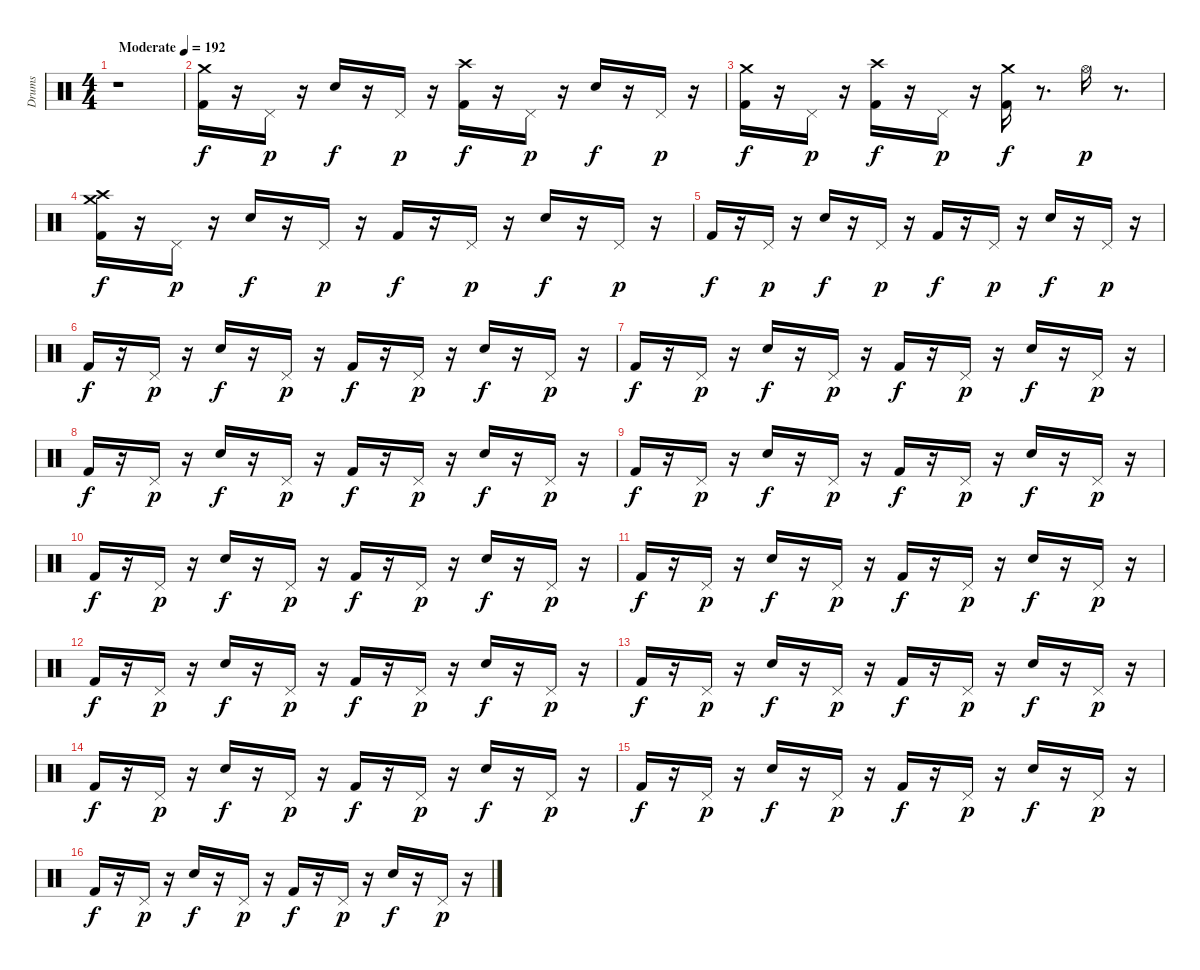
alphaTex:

\track ("Drums" "Drums") {instrument percussion}
\staff {score}
\articulation defaults
\ts (4 4)
\tempo (192 "Moderate")
\clef neutral
\ks c
r.1{dy f} |
("Crash medium (hit)" "Kick (hit) 2").16 r.16 "Pedal Hi-Hat (hit)".16{dy p} r.16 "Electric Snare (hit)".16{dy f} r.16 "Pedal Hi-Hat (hit)".16{dy p} r.16 ("Crash high (hit)" "Kick (hit) 2").16{dy f} r.16 "Pedal Hi-Hat (hit)".16{dy p} r.16 "Electric Snare (hit)".16{dy f} r.16 "Pedal Hi-Hat (hit)".16{dy p} r.16 |
("Crash medium (hit)" "Kick (hit) 2").16{dy f} r.16 "Pedal Hi-Hat (hit)".16{dy p} r.16 ("Crash high (hit)" "Kick (hit) 2").16{dy f} r.16 "Pedal Hi-Hat (hit)".16{dy p} r.16 ("Crash medium (hit)" "Kick (hit) 2").16{dy f} r.8{d} "Hi-Hat (open)".16{dy p} r.8{d} |
("Crash medium (hit)" "Crash high (hit)" "Kick (hit) 2").16{dy f} r.16 "Pedal Hi-Hat (hit)".16{dy p} r.16 "Electric Snare (hit)".16{dy f} r.16 "Pedal Hi-Hat (hit)".16{dy p} r.16 "Kick (hit) 2".16{dy f} r.16 "Pedal Hi-Hat (hit)".16{dy p} r.16 "Electric Snare (hit)".16{dy f} r.16 "Pedal Hi-Hat (hit)".16{dy p} r.16 |
"Kick (hit) 2".16{dy f} r.16 "Pedal Hi-Hat (hit)".16{dy p} r.16 "Electric Snare (hit)".16{dy f} r.16 "Pedal Hi-Hat (hit)".16{dy p} r.16 "Kick (hit) 2".16{dy f} r.16 "Pedal Hi-Hat (hit)".16{dy p} r.16 "Electric Snare (hit)".16{dy f} r.16 "Pedal Hi-Hat (hit)".16{dy p} r.16 |
"Kick (hit) 2".16{dy f} r.16 "Pedal Hi-Hat (hit)".16{dy p} r.16 "Electric Snare (hit)".16{dy f} r.16 "Pedal Hi-Hat (hit)".16{dy p} r.16 "Kick (hit) 2".16{dy f} r.16 "Pedal Hi-Hat (hit)".16{dy p} r.16 "Electric Snare (hit)".16{dy f} r.16 "Pedal Hi-Hat (hit)".16{dy p} r.16 |
"Kick (hit) 2".16{dy f} r.16 "Pedal Hi-Hat (hit)".16{dy p} r.16 "Electric Snare (hit)".16{dy f} r.16 "Pedal Hi-Hat (hit)".16{dy p} r.16 "Kick (hit) 2".16{dy f} r.16 "Pedal Hi-Hat (hit)".16{dy p} r.16 "Electric Snare (hit)".16{dy f} r.16 "Pedal Hi-Hat (hit)".16{dy p} r.16 |
"Kick (hit) 2".16{dy f} r.16 "Pedal Hi-Hat (hit)".16{dy p} r.16 "Electric Snare (hit)".16{dy f} r.16 "Pedal Hi-Hat (hit)".16{dy p} r.16 "Kick (hit) 2".16{dy f} r.16 "Pedal Hi-Hat (hit)".16{dy p} r.16 "Electric Snare (hit)".16{dy f} r.16 "Pedal Hi-Hat (hit)".16{dy p} r.16 |
"Kick (hit) 2".16{dy f} r.16 "Pedal Hi-Hat (hit)".16{dy p} r.16 "Electric Snare (hit)".16{dy f} r.16 "Pedal Hi-Hat (hit)".16{dy p} r.16 "Kick (hit) 2".16{dy f} r.16 "Pedal Hi-Hat (hit)".16{dy p} r.16 "Electric Snare (hit)".16{dy f} r.16 "Pedal Hi-Hat (hit)".16{dy p} r.16 |
"Kick (hit) 2".16{dy f} r.16 "Pedal Hi-Hat (hit)".16{dy p} r.16 "Electric Snare (hit)".16{dy f} r.16 "Pedal Hi-Hat (hit)".16{dy p} r.16 "Kick (hit) 2".16{dy f} r.16 "Pedal Hi-Hat (hit)".16{dy p} r.16 "Electric Snare (hit)".16{dy f} r.16 "Pedal Hi-Hat (hit)".16{dy p} r.16 |
"Kick (hit) 2".16{dy f} r.16 "Pedal Hi-Hat (hit)".16{dy p} r.16 "Electric Snare (hit)".16{dy f} r.16 "Pedal Hi-Hat (hit)".16{dy p} r.16 "Kick (hit) 2".16{dy f} r.16 "Pedal Hi-Hat (hit)".16{dy p} r.16 "Electric Snare (hit)".16{dy f} r.16 "Pedal Hi-Hat (hit)".16{dy p} r.16 |
"Kick (hit) 2".16{dy f} r.16 "Pedal Hi-Hat (hit)".16{dy p} r.16 "Electric Snare (hit)".16{dy f} r.16 "Pedal Hi-Hat (hit)".16{dy p} r.16 "Kick (hit) 2".16{dy f} r.16 "Pedal Hi-Hat (hit)".16{dy p} r.16 "Electric Snare (hit)".16{dy f} r.16 "Pedal Hi-Hat (hit)".16{dy p} r.16 |
"Kick (hit) 2".16{dy f} r.16 "Pedal Hi-Hat (hit)".16{dy p} r.16 "Electric Snare (hit)".16{dy f} r.16 "Pedal Hi-Hat (hit)".16{dy p} r.16 "Kick (hit) 2".16{dy f} r.16 "Pedal Hi-Hat (hit)".16{dy p} r.16 "Electric Snare (hit)".16{dy f} r.16 "Pedal Hi-Hat (hit)".16{dy p} r.16 |
"Kick (hit) 2".16{dy f} r.16 "Pedal Hi-Hat (hit)".16{dy p} r.16 "Electric Snare (hit)".16{dy f} r.16 "Pedal Hi-Hat (hit)".16{dy p} r.16 "Kick (hit) 2".16{dy f} r.16 "Pedal Hi-Hat (hit)".16{dy p} r.16 "Electric Snare (hit)".16{dy f} r.16 "Pedal Hi-Hat (hit)".16{dy p} r.16 |
"Kick (hit) 2".16{dy f} r.16 "Pedal Hi-Hat (hit)".16{dy p} r.16 "Electric Snare (hit)".16{dy f} r.16 "Pedal Hi-Hat (hit)".16{dy p} r.16 "Kick (hit) 2".16{dy f} r.16 "Pedal Hi-Hat (hit)".16{dy p} r.16 "Electric Snare (hit)".16{dy f} r.16 "Pedal Hi-Hat (hit)".16{dy p} r.16 |
"Kick (hit) 2".16{dy f} r.16 "Pedal Hi-Hat (hit)".16{dy p} r.16 "Electric Snare (hit)".16{dy f} r.16 "Pedal Hi-Hat (hit)".16{dy p} r.16 "Kick (hit) 2".16{dy f} r.16 "Pedal Hi-Hat (hit)".16{dy p} r.16 "Electric Snare (hit)".16{dy f} r.16 "Pedal Hi-Hat (hit)".16{dy p} r.16
